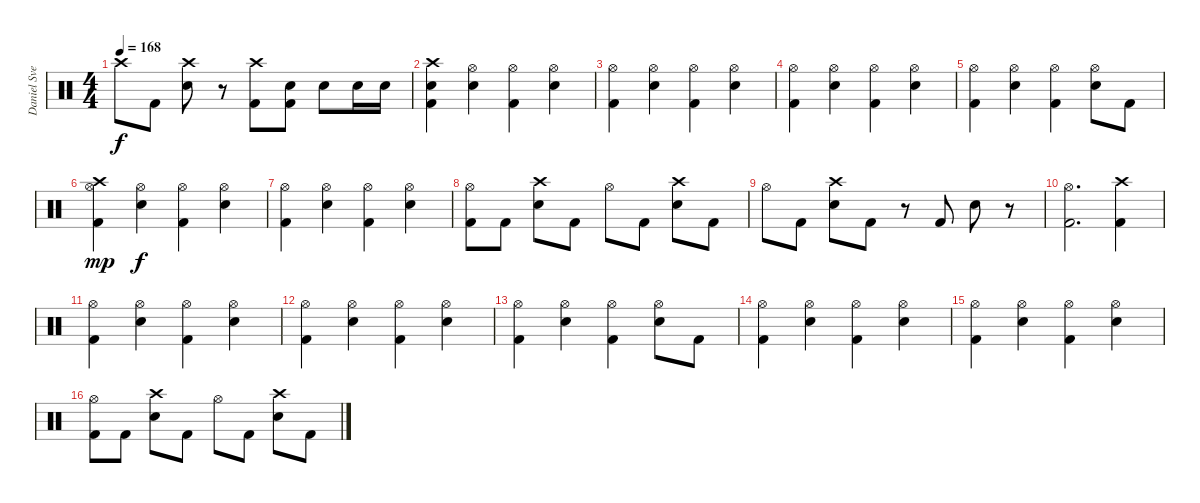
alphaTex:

\track ("Daniel Svensson" "Daniel Sve") {instrument percussion}
\staff {score}
\articulation defaults
\ts (4 4)
\tempo 168
\clef neutral
\ks c "Crash high (hit)".8{dy f} "Kick (hit) 2".8
("Crash high (hit)" "Electric Snare (hit)").8 r.8 ("Crash high (hit)" "Kick (hit) 2").8 ("Electric Snare (hit)" "Kick (hit) 2").8 "Electric Snare (hit)".8 "Electric Snare (hit)".16 "Electric Snare (hit)".16 |
("Crash high (hit)" "Electric Snare (hit)" "Kick (hit) 2").4 ("Hi-Hat (open)" "Electric Snare (hit)").4 ("Hi-Hat (open)" "Kick (hit) 2").4 ("Hi-Hat (open)" "Electric Snare (hit)").4 |
("Hi-Hat (open)" "Kick (hit) 2").4 ("Hi-Hat (open)" "Electric Snare (hit)").4 ("Hi-Hat (open)" "Kick (hit) 2").4 ("Hi-Hat (open)" "Electric Snare (hit)").4 |
("Hi-Hat (open)" "Kick (hit) 2").4 ("Hi-Hat (open)" "Electric Snare (hit)").4 ("Hi-Hat (open)" "Kick (hit) 2").4 ("Hi-Hat (open)" "Electric Snare (hit)").4 |
("Hi-Hat (open)" "Kick (hit) 2").4 ("Hi-Hat (open)" "Electric Snare (hit)").4 ("Hi-Hat (open)" "Kick (hit) 2").4 ("Hi-Hat (open)" "Electric Snare (hit)").8 "Kick (hit) 2".8 |
("Crash high (hit)" "Hi-Hat (open)" "Kick (hit) 2").4{dy mp} ("Hi-Hat (open)" "Electric Snare (hit)").4{dy f} ("Hi-Hat (open)" "Kick (hit) 2").4 ("Hi-Hat (open)" "Electric Snare (hit)").4 |
("Hi-Hat (open)" "Kick (hit) 2").4 ("Hi-Hat (open)" "Electric Snare (hit)").4 ("Hi-Hat (open)" "Kick (hit) 2").4 ("Hi-Hat (open)" "Electric Snare (hit)").4 |
("Hi-Hat (open)" "Kick (hit) 2").8 "Kick (hit) 2".8 ("Crash high (hit)" "Electric Snare (hit)").8 "Kick (hit) 2".8 "Hi-Hat (open)".8 "Kick (hit) 2".8 ("Crash high (hit)" "Electric Snare (hit)").8 "Kick (hit) 2".8 |
"Hi-Hat (open)".8 "Kick (hit) 2".8 ("Crash high (hit)" "Electric Snare (hit)").8 "Kick (hit) 2".8 r.8 "Kick (hit) 2".8 "Electric Snare (hit)".8 r.8 |
("Hi-Hat (open)" "Kick (hit) 2").2{d} ("Crash high (hit)" "Kick (hit) 2").4 |
("Hi-Hat (open)" "Kick (hit) 2").4 ("Hi-Hat (open)" "Electric Snare (hit)").4 ("Hi-Hat (open)" "Kick (hit) 2").4 ("Hi-Hat (open)" "Electric Snare (hit)").4 |
("Hi-Hat (open)" "Kick (hit) 2").4 ("Hi-Hat (open)" "Electric Snare (hit)").4 ("Hi-Hat (open)" "Kick (hit) 2").4 ("Hi-Hat (open)" "Electric Snare (hit)").4 |
("Hi-Hat (open)" "Kick (hit) 2").4 ("Hi-Hat (open)" "Electric Snare (hit)").4 ("Hi-Hat (open)" "Kick (hit) 2").4 ("Hi-Hat (open)" "Electric Snare (hit)").8 "Kick (hit) 2".8 |
("Hi-Hat (open)" "Kick (hit) 2").4 ("Hi-Hat (open)" "Electric Snare (hit)").4 ("Hi-Hat (open)" "Kick (hit) 2").4 ("Hi-Hat (open)" "Electric Snare (hit)").4 |
("Hi-Hat (open)" "Kick (hit) 2").4 ("Hi-Hat (open)" "Electric Snare (hit)").4 ("Hi-Hat (open)" "Kick (hit) 2").4 ("Hi-Hat (open)" "Electric Snare (hit)").4 |
("Hi-Hat (open)" "Kick (hit) 2").8 "Kick (hit) 2".8 ("Crash high (hit)" "Electric Snare (hit)").8 "Kick (hit) 2".8 "Hi-Hat (open)".8 "Kick (hit) 2".8 ("Crash high (hit)" "Electric Snare (hit)").8 "Kick (hit) 2".8
